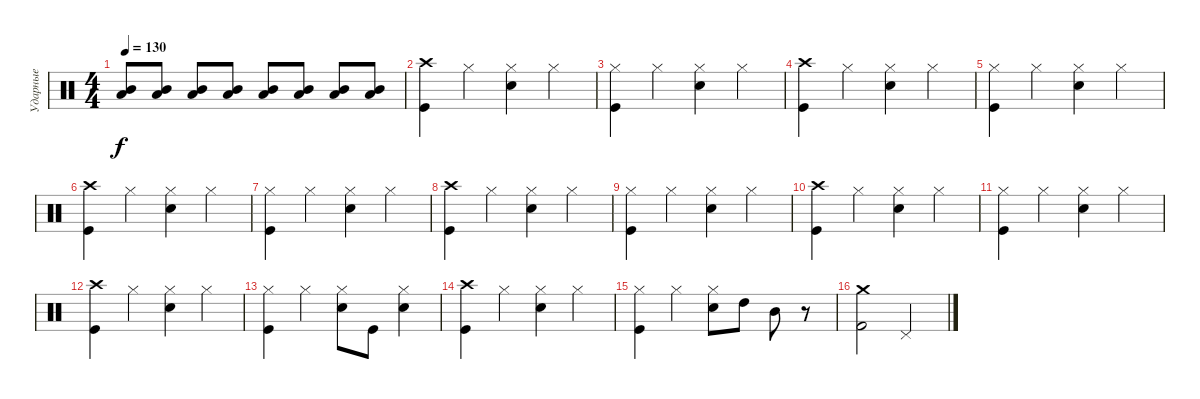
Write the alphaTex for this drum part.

\track ("Ударные" "Ударные") {instrument percussion}
\staff {score}
\articulation defaults
\ts (4 4)
\tempo 130
\clef neutral
\ks c
("Mid Tom (hit)" "Low Tom (hit)").8{dy f} ("Mid Tom (hit)" "Low Tom (hit)").8 ("Low Tom (hit)" "Mid Tom (hit)").8 ("Low Tom (hit)" "Mid Tom (hit)").8 ("Mid Tom (hit)" "Low Tom (hit)").8 ("Low Tom (hit)" "Mid Tom (hit)").8 ("Mid Tom (hit)" "Low Tom (hit)").8 ("Mid Tom (hit)" "Low Tom (hit)").8 |
("Crash high (hit)" "Kick (hit)").4 "Hi-Hat (closed)".4 ("Snare (hit) 2" "Hi-Hat (closed)").4 "Hi-Hat (closed)".4 |
("Kick (hit)" "Hi-Hat (closed)").4 "Hi-Hat (closed)".4 ("Snare (hit) 2" "Hi-Hat (closed)").4 "Hi-Hat (closed)".4 |
("Crash high (hit)" "Kick (hit)").4 "Hi-Hat (closed)".4 ("Snare (hit) 2" "Hi-Hat (closed)").4 "Hi-Hat (closed)".4 |
("Hi-Hat (closed)" "Kick (hit)").4 "Hi-Hat (closed)".4 ("Snare (hit) 2" "Hi-Hat (closed)").4 "Hi-Hat (closed)".4 |
("Crash high (hit)" "Kick (hit)").4 "Hi-Hat (closed)".4 ("Snare (hit) 2" "Hi-Hat (closed)").4 "Hi-Hat (closed)".4 |
("Kick (hit)" "Hi-Hat (closed)").4 "Hi-Hat (closed)".4 ("Snare (hit) 2" "Hi-Hat (closed)").4 "Hi-Hat (closed)".4 |
("Crash high (hit)" "Kick (hit)").4 "Hi-Hat (closed)".4 ("Snare (hit) 2" "Hi-Hat (closed)").4 "Hi-Hat (closed)".4 |
("Hi-Hat (closed)" "Kick (hit)").4 "Hi-Hat (closed)".4 ("Snare (hit) 2" "Hi-Hat (closed)").4 "Hi-Hat (closed)".4 |
("Crash high (hit)" "Kick (hit)").4 "Hi-Hat (closed)".4 ("Snare (hit) 2" "Hi-Hat (closed)").4 "Hi-Hat (closed)".4 |
("Kick (hit)" "Hi-Hat (closed)").4 "Hi-Hat (closed)".4 ("Snare (hit) 2" "Hi-Hat (closed)").4 "Hi-Hat (closed)".4 |
("Crash high (hit)" "Kick (hit)").4 "Hi-Hat (closed)".4 ("Snare (hit) 2" "Hi-Hat (closed)").4 "Hi-Hat (closed)".4 |
("Hi-Hat (closed)" "Kick (hit)").4 "Hi-Hat (closed)".4 ("Snare (hit) 2" "Hi-Hat (closed)").8 "Kick (hit)".8 ("Snare (hit) 2" "Hi-Hat (closed)").4 |
("Crash high (hit)" "Kick (hit)").4 "Hi-Hat (closed)".4 ("Snare (hit) 2" "Hi-Hat (closed)").4 "Hi-Hat (closed)".4 |
("Hi-Hat (closed)" "Kick (hit)").4 "Hi-Hat (closed)".4 ("Snare (hit) 2" "Hi-Hat (closed)").8 "High Tom (hit)".8 "Mid Tom (hit)".8 r.8 |
("Crash medium (hit)" "Kick (hit) 2").2 "Pedal Hi-Hat (hit)".2
